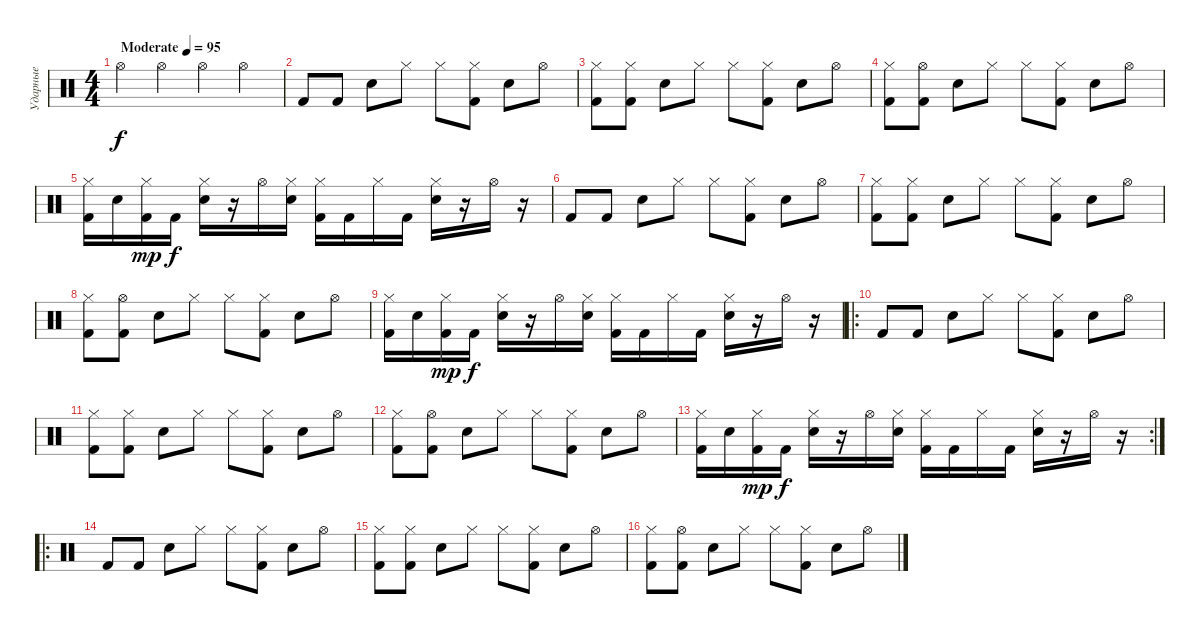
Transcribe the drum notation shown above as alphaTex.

\track ("Ударные" "Ударные") {instrument percussion}
\staff {score}
\articulation defaults
\ts (4 4)
\tempo (95 "Moderate")
\clef neutral
\ks c "Hi-Hat (open)".4{dy f} "Hi-Hat (open)".4 "Hi-Hat (open)".4 "Hi-Hat (open)".4
|
"Kick (hit) 2".8 "Kick (hit) 2".8 "Snare (hit) 2".8 "Hi-Hat (closed)".8 "Hi-Hat (closed)".8 ("Hi-Hat (closed)" "Kick (hit) 2").8 "Snare (hit) 2".8 "Hi-Hat (open)".8 |
("Hi-Hat (closed)" "Kick (hit) 2").8 ("Hi-Hat (closed)" "Kick (hit) 2").8 "Snare (hit) 2".8 "Hi-Hat (closed)".8 "Hi-Hat (closed)".8 ("Hi-Hat (closed)" "Kick (hit) 2").8 "Snare (hit) 2".8 "Hi-Hat (open)".8 |
("Hi-Hat (closed)" "Kick (hit) 2").8 ("Hi-Hat (open)" "Kick (hit) 2").8 "Snare (hit) 2".8 "Hi-Hat (closed)".8 "Hi-Hat (closed)".8 ("Hi-Hat (closed)" "Kick (hit) 2").8 "Snare (hit) 2".8 "Hi-Hat (open)".8 |
("Hi-Hat (closed)" "Kick (hit) 2").16 "Snare (hit) 2".16 ("Hi-Hat (closed)" "Kick (hit) 2").16{dy mp} "Kick (hit) 2".16{dy f} ("Hi-Hat (closed)" "Snare (hit) 2").16 r.16 "Hi-Hat (open)".16 ("Hi-Hat (closed)" "Snare (hit) 2").16 ("Hi-Hat (closed)" "Kick (hit) 2").16 "Kick (hit) 2".16 "Hi-Hat (closed)".16 "Kick (hit) 2".16 ("Hi-Hat (closed)" "Snare (hit) 2").16 r.16 "Hi-Hat (open)".16 r.16 |
"Kick (hit) 2".8 "Kick (hit) 2".8 "Snare (hit) 2".8 "Hi-Hat (closed)".8 "Hi-Hat (closed)".8 ("Hi-Hat (closed)" "Kick (hit) 2").8 "Snare (hit) 2".8 "Hi-Hat (open)".8 |
("Hi-Hat (closed)" "Kick (hit) 2").8 ("Hi-Hat (closed)" "Kick (hit) 2").8 "Snare (hit) 2".8 "Hi-Hat (closed)".8 "Hi-Hat (closed)".8 ("Hi-Hat (closed)" "Kick (hit) 2").8 "Snare (hit) 2".8 "Hi-Hat (open)".8 |
("Hi-Hat (closed)" "Kick (hit) 2").8 ("Hi-Hat (open)" "Kick (hit) 2").8 "Snare (hit) 2".8 "Hi-Hat (closed)".8 "Hi-Hat (closed)".8 ("Hi-Hat (closed)" "Kick (hit) 2").8 "Snare (hit) 2".8 "Hi-Hat (open)".8 |
("Hi-Hat (closed)" "Kick (hit) 2").16 "Snare (hit) 2".16 ("Hi-Hat (closed)" "Kick (hit) 2").16{dy mp} "Kick (hit) 2".16{dy f} ("Hi-Hat (closed)" "Snare (hit) 2").16 r.16 "Hi-Hat (open)".16 ("Hi-Hat (closed)" "Snare (hit) 2").16 ("Hi-Hat (closed)" "Kick (hit) 2").16 "Kick (hit) 2".16 "Hi-Hat (closed)".16 "Kick (hit) 2".16 ("Hi-Hat (closed)" "Snare (hit) 2").16 r.16 "Hi-Hat (open)".16 r.16 |
\ro "Kick (hit) 2".8 "Kick (hit) 2".8 "Snare (hit) 2".8 "Hi-Hat (closed)".8 "Hi-Hat (closed)".8
("Hi-Hat (closed)" "Kick (hit) 2").8 "Snare (hit) 2".8 "Hi-Hat (open)".8 |
("Hi-Hat (closed)" "Kick (hit) 2").8 ("Hi-Hat (closed)" "Kick (hit) 2").8 "Snare (hit) 2".8 "Hi-Hat (closed)".8 "Hi-Hat (closed)".8 ("Hi-Hat (closed)" "Kick (hit) 2").8 "Snare (hit) 2".8 "Hi-Hat (open)".8 |
("Hi-Hat (closed)" "Kick (hit) 2").8 ("Hi-Hat (open)" "Kick (hit) 2").8 "Snare (hit) 2".8 "Hi-Hat (closed)".8 "Hi-Hat (closed)".8 ("Hi-Hat (closed)" "Kick (hit) 2").8 "Snare (hit) 2".8 "Hi-Hat (open)".8 |
\rc 2
("Hi-Hat (closed)" "Kick (hit) 2").16 "Snare (hit) 2".16 ("Hi-Hat (closed)" "Kick (hit) 2").16{dy mp} "Kick (hit) 2".16{dy f} ("Hi-Hat (closed)" "Snare (hit) 2").16 r.16 "Hi-Hat (open)".16 ("Hi-Hat (closed)" "Snare (hit) 2").16 ("Hi-Hat (closed)" "Kick (hit) 2").16 "Kick (hit) 2".16 "Hi-Hat (closed)".16 "Kick (hit) 2".16 ("Hi-Hat (closed)" "Snare (hit) 2").16 r.16 "Hi-Hat (open)".16 r.16 |
\ro "Kick (hit) 2".8 "Kick (hit) 2".8 "Snare (hit) 2".8 "Hi-Hat (closed)".8 "Hi-Hat (closed)".8
("Hi-Hat (closed)" "Kick (hit) 2").8 "Snare (hit) 2".8 "Hi-Hat (open)".8 |
("Hi-Hat (closed)" "Kick (hit) 2").8 ("Hi-Hat (closed)" "Kick (hit) 2").8 "Snare (hit) 2".8 "Hi-Hat (closed)".8 "Hi-Hat (closed)".8 ("Hi-Hat (closed)" "Kick (hit) 2").8 "Snare (hit) 2".8 "Hi-Hat (open)".8 |
("Hi-Hat (closed)" "Kick (hit) 2").8 ("Hi-Hat (open)" "Kick (hit) 2").8 "Snare (hit) 2".8 "Hi-Hat (closed)".8 "Hi-Hat (closed)".8 ("Hi-Hat (closed)" "Kick (hit) 2").8 "Snare (hit) 2".8 "Hi-Hat (open)".8
